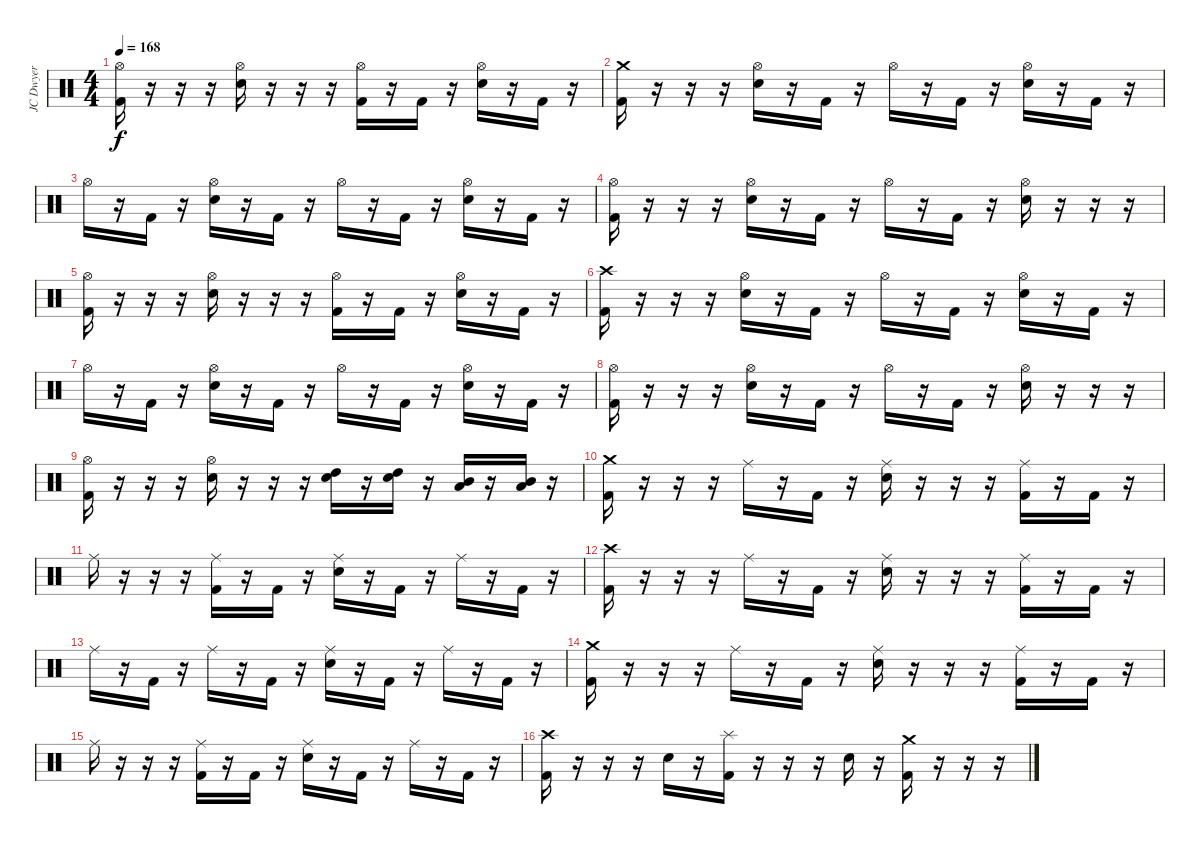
\track ("JC Dwyer" "JC Dwyer") {instrument percussion}
\staff {score}
\articulation defaults
\ts (4 4)
\tempo 168
\clef neutral
\ks c
("Hi-Hat (open)" "Kick (hit) 2").16{dy f} r.16 r.16 r.16 ("Hi-Hat (open)" "Electric Snare (hit)").16 r.16 r.16 r.16 ("Hi-Hat (open)" "Kick (hit) 2").16 r.16 "Kick (hit) 2".16 r.16 ("Hi-Hat (open)" "Electric Snare (hit)").16 r.16 "Kick (hit) 2".16 r.16 |
("Crash medium (hit)" "Kick (hit) 2").16 r.16 r.16 r.16 ("Hi-Hat (open)" "Electric Snare (hit)").16 r.16 "Kick (hit) 2".16 r.16 "Hi-Hat (open)".16 r.16 "Kick (hit) 2".16 r.16 ("Hi-Hat (open)" "Electric Snare (hit)").16 r.16 "Kick (hit) 2".16 r.16 |
"Hi-Hat (open)".16 r.16 "Kick (hit) 2".16 r.16 ("Hi-Hat (open)" "Electric Snare (hit)").16 r.16 "Kick (hit) 2".16 r.16 "Hi-Hat (open)".16 r.16 "Kick (hit) 2".16 r.16 ("Hi-Hat (open)" "Electric Snare (hit)").16 r.16 "Kick (hit) 2".16 r.16 |
("Hi-Hat (open)" "Kick (hit) 2").16 r.16 r.16 r.16 ("Hi-Hat (open)" "Electric Snare (hit)").16 r.16 "Kick (hit) 2".16 r.16 "Hi-Hat (open)".16 r.16 "Kick (hit) 2".16 r.16 ("Hi-Hat (open)" "Electric Snare (hit)").16 r.16 r.16 r.16 |
("Hi-Hat (open)" "Kick (hit) 2").16 r.16 r.16 r.16 ("Hi-Hat (open)" "Electric Snare (hit)").16 r.16 r.16 r.16 ("Hi-Hat (open)" "Kick (hit) 2").16 r.16 "Kick (hit) 2".16 r.16 ("Hi-Hat (open)" "Electric Snare (hit)").16 r.16 "Kick (hit) 2".16 r.16 |
("Crash high (hit)" "Kick (hit) 2").16 r.16 r.16 r.16 ("Hi-Hat (open)" "Electric Snare (hit)").16 r.16 "Kick (hit) 2".16 r.16 "Hi-Hat (open)".16 r.16 "Kick (hit) 2".16 r.16 ("Hi-Hat (open)" "Electric Snare (hit)").16 r.16 "Kick (hit) 2".16 r.16 |
"Hi-Hat (open)".16 r.16 "Kick (hit) 2".16 r.16 ("Hi-Hat (open)" "Electric Snare (hit)").16 r.16 "Kick (hit) 2".16 r.16 "Hi-Hat (open)".16 r.16 "Kick (hit) 2".16 r.16 ("Hi-Hat (open)" "Electric Snare (hit)").16 r.16 "Kick (hit) 2".16 r.16 |
("Hi-Hat (open)" "Kick (hit) 2").16 r.16 r.16 r.16 ("Hi-Hat (open)" "Electric Snare (hit)").16 r.16 "Kick (hit) 2".16 r.16 "Hi-Hat (open)".16 r.16 "Kick (hit) 2".16 r.16 ("Hi-Hat (open)" "Electric Snare (hit)").16 r.16 r.16 r.16 |
("Hi-Hat (open)" "Kick (hit) 2").16 r.16 r.16 r.16 ("Hi-Hat (open)" "Electric Snare (hit)").16 r.16 r.16 r.16 ("High Tom (hit)" "Electric Snare (hit)").16 r.16 ("High Tom (hit)" "Electric Snare (hit)").16 r.16 ("Mid Tom (hit)" "Low Floor Tom (hit)").16 r.16 ("Mid Tom (hit)" "Low Floor Tom (hit)").16 r.16 |
("Crash medium (hit)" "Kick (hit) 2").16 r.16 r.16 r.16 "Ride (middle)".16 r.16 "Kick (hit) 2".16 r.16 ("Ride (middle)" "Electric Snare (hit)").16 r.16 r.16 r.16 ("Ride (middle)" "Kick (hit) 2").16 r.16 "Kick (hit) 2".16 r.16 |
"Ride (middle)".16 r.16 r.16 r.16 ("Ride (middle)" "Kick (hit) 2").16 r.16 "Kick (hit) 2".16 r.16 ("Ride (middle)" "Electric Snare (hit)").16 r.16 "Kick (hit) 2".16 r.16 "Ride (middle)".16 r.16 "Kick (hit) 2".16 r.16 |
("Crash high (hit)" "Kick (hit) 2").16 r.16 r.16 r.16 "Ride (middle)".16 r.16 "Kick (hit) 2".16 r.16 ("Ride (middle)" "Electric Snare (hit)").16 r.16 r.16 r.16 ("Ride (middle)" "Kick (hit) 2").16 r.16 "Kick (hit) 2".16 r.16 |
"Ride (middle)".16 r.16 "Kick (hit) 2".16 r.16 "Ride (middle)".16 r.16 "Kick (hit) 2".16 r.16 ("Ride (middle)" "Electric Snare (hit)").16 r.16 "Kick (hit) 2".16 r.16 "Ride (middle)".16 r.16 "Kick (hit) 2".16 r.16 |
("Crash medium (hit)" "Kick (hit) 2").16 r.16 r.16 r.16 "Ride (middle)".16 r.16 "Kick (hit) 2".16 r.16 ("Ride (middle)" "Electric Snare (hit)").16 r.16 r.16 r.16 ("Ride (middle)" "Kick (hit) 2").16 r.16 "Kick (hit) 2".16 r.16 |
"Ride (middle)".16 r.16 r.16 r.16 ("Ride (middle)" "Kick (hit) 2").16 r.16 "Kick (hit) 2".16 r.16 ("Ride (middle)" "Electric Snare (hit)").16 r.16 "Kick (hit) 2".16 r.16 "Ride (middle)".16 r.16 "Kick (hit) 2".16 r.16 |
("Crash high (hit)" "Kick (hit) 2").16 r.16 r.16 r.16 "Electric Snare (hit)".16 r.16 ("Splash (hit)" "Kick (hit) 2").16 r.16 r.16 r.16 "Electric Snare (hit)".16 r.16 ("Crash medium (hit)" "Kick (hit) 2").16 r.16 r.16 r.16
